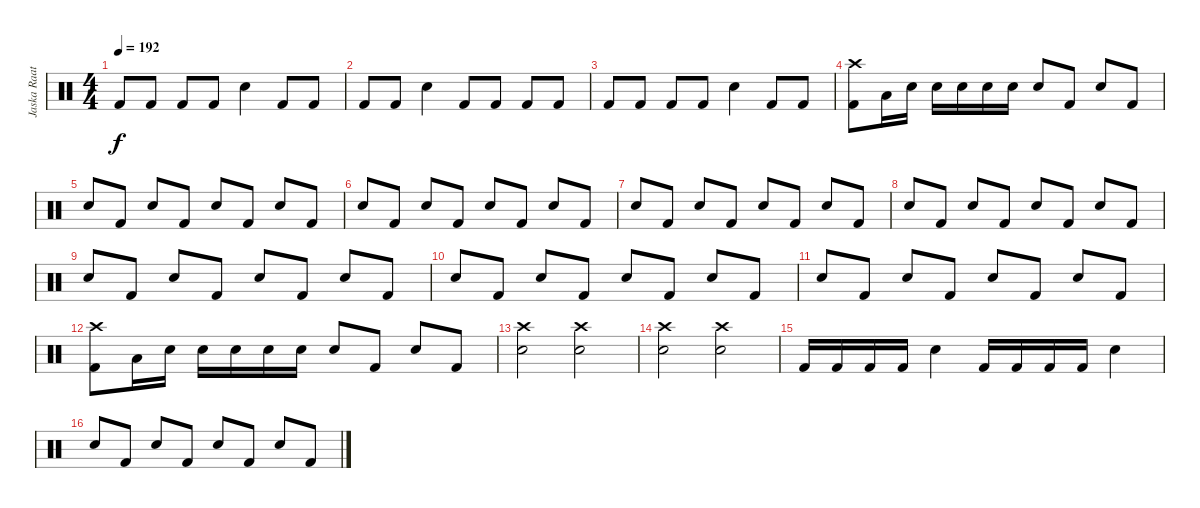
\track ("Jaska Raatikainen" "Jaska Raat") {instrument percussion}
\staff {score}
\articulation defaults
\ts (4 4)
\tempo 192
\clef neutral
\ks c "Kick (hit) 2".8{dy f} "Kick (hit) 2".8 "Kick (hit) 2".8 "Kick (hit) 2".8 "Snare (hit) 2".4 "Kick (hit) 2".8 "Kick (hit) 2".8
|
"Kick (hit) 2".8 "Kick (hit) 2".8 "Snare (hit) 2".4 "Kick (hit) 2".8 "Kick (hit) 2".8 "Kick (hit) 2".8 "Kick (hit) 2".8 |
"Kick (hit) 2".8 "Kick (hit) 2".8 "Kick (hit) 2".8 "Kick (hit) 2".8 "Snare (hit) 2".4 "Kick (hit) 2".8 "Kick (hit) 2".8 |
("Crash high (hit)" "Kick (hit) 2").8 "Low Floor Tom (hit)".16 "Snare (hit) 2".16 "Snare (hit) 2".16 "Snare (hit) 2".16 "Snare (hit) 2".16 "Snare (hit) 2".16 "Snare (hit) 2".8 "Kick (hit) 2".8 "Snare (hit) 2".8 "Kick (hit) 2".8 |
"Snare (hit) 2".8 "Kick (hit) 2".8 "Snare (hit) 2".8 "Kick (hit) 2".8 "Snare (hit) 2".8 "Kick (hit) 2".8 "Snare (hit) 2".8 "Kick (hit) 2".8 |
"Snare (hit) 2".8 "Kick (hit) 2".8 "Snare (hit) 2".8 "Kick (hit) 2".8 "Snare (hit) 2".8 "Kick (hit) 2".8 "Snare (hit) 2".8 "Kick (hit) 2".8 |
"Snare (hit) 2".8 "Kick (hit) 2".8 "Snare (hit) 2".8 "Kick (hit) 2".8 "Snare (hit) 2".8 "Kick (hit) 2".8 "Snare (hit) 2".8 "Kick (hit) 2".8 |
"Snare (hit) 2".8 "Kick (hit) 2".8 "Snare (hit) 2".8 "Kick (hit) 2".8 "Snare (hit) 2".8 "Kick (hit) 2".8 "Snare (hit) 2".8 "Kick (hit) 2".8 |
"Snare (hit) 2".8 "Kick (hit) 2".8 "Snare (hit) 2".8 "Kick (hit) 2".8 "Snare (hit) 2".8 "Kick (hit) 2".8 "Snare (hit) 2".8 "Kick (hit) 2".8 |
"Snare (hit) 2".8 "Kick (hit) 2".8 "Snare (hit) 2".8 "Kick (hit) 2".8 "Snare (hit) 2".8 "Kick (hit) 2".8 "Snare (hit) 2".8 "Kick (hit) 2".8 |
"Snare (hit) 2".8 "Kick (hit) 2".8 "Snare (hit) 2".8 "Kick (hit) 2".8 "Snare (hit) 2".8 "Kick (hit) 2".8 "Snare (hit) 2".8 "Kick (hit) 2".8 |
("Crash high (hit)" "Kick (hit) 2").8 "Low Floor Tom (hit)".16 "Snare (hit) 2".16 "Snare (hit) 2".16 "Snare (hit) 2".16 "Snare (hit) 2".16 "Snare (hit) 2".16 "Snare (hit) 2".8 "Kick (hit) 2".8 "Snare (hit) 2".8 "Kick (hit) 2".8 |
("Crash high (hit)" "Snare (hit) 2").2 ("Crash high (hit)" "Snare (hit) 2").2 |
("Crash high (hit)" "Snare (hit) 2").2 ("Crash high (hit)" "Snare (hit) 2").2 |
"Kick (hit) 2".16 "Kick (hit) 2".16 "Kick (hit) 2".16 "Kick (hit) 2".16 "Snare (hit) 2".4 "Kick (hit) 2".16 "Kick (hit) 2".16 "Kick (hit) 2".16 "Kick (hit) 2".16 "Snare (hit) 2".4 |
"Snare (hit) 2".8 "Kick (hit) 2".8 "Snare (hit) 2".8 "Kick (hit) 2".8 "Snare (hit) 2".8 "Kick (hit) 2".8 "Snare (hit) 2".8 "Kick (hit) 2".8
